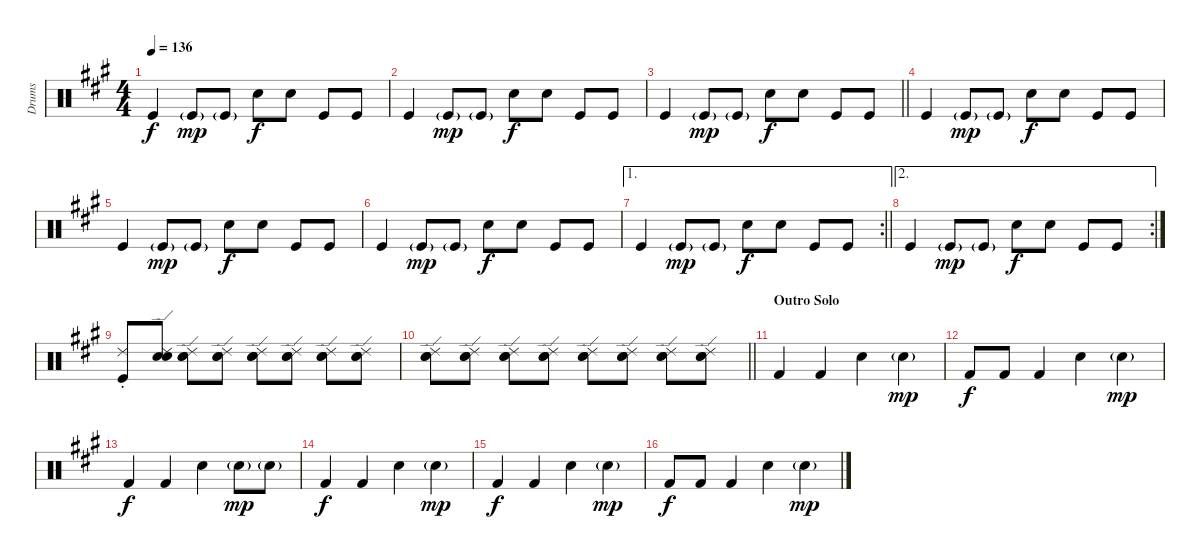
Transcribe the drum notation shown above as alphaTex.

\track ("Drums" "Drums") {instrument percussion}
\staff {score}
\articulation defaults
\ts (4 4)
\tempo 136
\clef neutral
\ks a "Kick (hit)".4{dy f} "Kick (hit)"{g}.8{dy mp} "Kick (hit)"{g}.8 "Electric Snare (hit)".8{dy f} "Electric Snare (hit)".8 "Kick (hit)".8 "Kick (hit)".8
|
"Kick (hit)".4 "Kick (hit)"{g}.8{dy mp} "Kick (hit)"{g}.8 "Electric Snare (hit)".8{dy f} "Electric Snare (hit)".8 "Kick (hit)".8 "Kick (hit)".8 |
\barLineRight lightlight "Kick (hit)".4 "Kick (hit)"{g}.8{dy mp} "Kick (hit)"{g}.8 "Electric Snare (hit)".8{dy f} "Electric Snare (hit)".8 "Kick (hit)".8 "Kick (hit)".8
|
"Kick (hit)".4 "Kick (hit)"{g}.8{dy mp} "Kick (hit)"{g}.8 "Electric Snare (hit)".8{dy f} "Electric Snare (hit)".8 "Kick (hit)".8 "Kick (hit)".8 |
"Kick (hit)".4 "Kick (hit)"{g}.8{dy mp} "Kick (hit)"{g}.8 "Electric Snare (hit)".8{dy f} "Electric Snare (hit)".8 "Kick (hit)".8 "Kick (hit)".8 |
"Kick (hit)".4 "Kick (hit)"{g}.8{dy mp} "Kick (hit)"{g}.8 "Electric Snare (hit)".8{dy f} "Electric Snare (hit)".8 "Kick (hit)".8 "Kick (hit)".8 |
\ae 1
\rc 2
\barLineRight lightlight "Kick (hit)".4 "Kick (hit)"{g}.8{dy mp} "Kick (hit)"{g}.8 "Electric Snare (hit)".8{dy f} "Electric Snare (hit)".8 "Kick (hit)".8 "Kick (hit)".8
|
\ae 2
\rc 2 "Kick (hit)".4 "Kick (hit)"{g}.8{dy mp} "Kick (hit)"{g}.8 "Electric Snare (hit)".8{dy f} "Electric Snare (hit)".8 "Kick (hit)".8 "Kick (hit)".8
|
("Ride (choke) 2" "Kick (hit)").8{volume 16} ("Ride (edge) 2" "Snare (hit) 2" "Electric Snare (hit)").8 ("Ride (edge) 2" "Snare (hit) 2" "Electric Snare (hit)").8 ("Ride (edge) 2" "Snare (hit) 2" "Electric Snare (hit)").8 ("Ride (edge) 2" "Snare (hit) 2" "Electric Snare (hit)").8 ("Ride (edge) 2" "Snare (hit) 2" "Electric Snare (hit)").8 ("Ride (edge) 2" "Snare (hit) 2" "Electric Snare (hit)").8 ("Ride (edge) 2" "Snare (hit) 2" "Electric Snare (hit)").8 |
\barLineRight lightlight
("Ride (edge) 2" "Snare (hit) 2" "Electric Snare (hit)").8 ("Ride (edge) 2" "Snare (hit) 2" "Electric Snare (hit)").8 ("Ride (edge) 2" "Snare (hit) 2" "Electric Snare (hit)").8 ("Ride (edge) 2" "Snare (hit) 2" "Electric Snare (hit)").8 ("Ride (edge) 2" "Snare (hit) 2" "Electric Snare (hit)").8 ("Ride (edge) 2" "Snare (hit) 2" "Electric Snare (hit)").8 ("Ride (edge) 2" "Snare (hit) 2" "Electric Snare (hit)").8 ("Ride (edge) 2" "Snare (hit) 2" "Electric Snare (hit)").8 |
\section ("" "Outro Solo")
"Kick (hit) 2".4 "Kick (hit) 2".4 "Snare (hit) 2".4 "Snare (hit) 2"{g}.4{dy mp} |
"Kick (hit) 2".8{dy f} "Kick (hit) 2".8 "Kick (hit) 2".4 "Snare (hit) 2".4 "Snare (hit) 2"{g}.4{dy mp} |
"Kick (hit) 2".4{dy f} "Kick (hit) 2".4 "Snare (hit) 2".4 "Snare (hit) 2"{g}.8{dy mp} "Snare (hit) 2"{g}.8 |
"Kick (hit) 2".4{dy f} "Kick (hit) 2".4 "Snare (hit) 2".4 "Snare (hit) 2"{g}.4{dy mp} |
"Kick (hit) 2".4{dy f} "Kick (hit) 2".4 "Snare (hit) 2".4 "Snare (hit) 2"{g}.4{dy mp} |
"Kick (hit) 2".8{dy f} "Kick (hit) 2".8 "Kick (hit) 2".4 "Snare (hit) 2".4 "Snare (hit) 2"{g}.4{dy mp}
